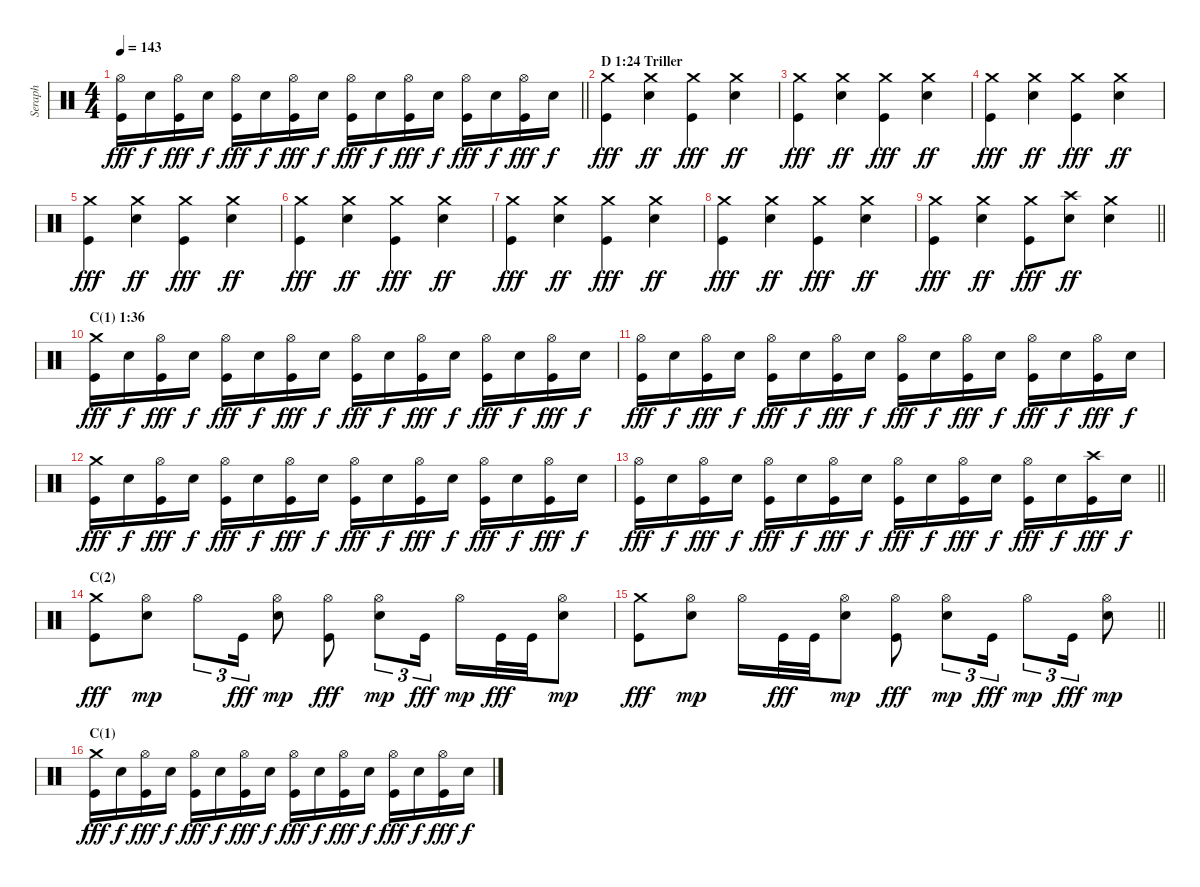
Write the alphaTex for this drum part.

\track ("Seraph" "Seraph") {instrument percussion}
\staff {score}
\articulation defaults
\ts (4 4)
\tempo 143
\clef neutral
\barLineRight lightlight
\ks c
("Hi-Hat (open)" "Kick (hit)").16{dy fff} "Electric Snare (hit)".16{dy f} ("Hi-Hat (open)" "Kick (hit)").16{dy fff} "Electric Snare (hit)".16{dy f} ("Hi-Hat (open)" "Kick (hit)").16{dy fff} "Electric Snare (hit)".16{dy f} ("Hi-Hat (open)" "Kick (hit)").16{dy fff} "Electric Snare (hit)".16{dy f} ("Hi-Hat (open)" "Kick (hit)").16{dy fff} "Electric Snare (hit)".16{dy f} ("Hi-Hat (open)" "Kick (hit)").16{dy fff} "Electric Snare (hit)".16{dy f} ("Hi-Hat (open)" "Kick (hit)").16{dy fff} "Electric Snare (hit)".16{dy f} ("Hi-Hat (open)" "Kick (hit)").16{dy fff} "Electric Snare (hit)".16{dy f} |
\section ("" "D 1:24 Triller")
("Crash medium (hit)" "Kick (hit)").4{dy fff} ("Crash medium (hit)" "Electric Snare (hit)").4{dy ff} ("Crash medium (hit)" "Kick (hit)").4{dy fff} ("Crash medium (hit)" "Electric Snare (hit)").4{dy ff} |
("Crash medium (hit)" "Kick (hit)").4{dy fff} ("Crash medium (hit)" "Electric Snare (hit)").4{dy ff} ("Crash medium (hit)" "Kick (hit)").4{dy fff} ("Crash medium (hit)" "Electric Snare (hit)").4{dy ff} |
("Crash medium (hit)" "Kick (hit)").4{dy fff} ("Crash medium (hit)" "Electric Snare (hit)").4{dy ff} ("Crash medium (hit)" "Kick (hit)").4{dy fff} ("Crash medium (hit)" "Electric Snare (hit)").4{dy ff} |
("Crash medium (hit)" "Kick (hit)").4{dy fff} ("Crash medium (hit)" "Electric Snare (hit)").4{dy ff} ("Crash medium (hit)" "Kick (hit)").4{dy fff} ("Crash medium (hit)" "Electric Snare (hit)").4{dy ff} |
("Crash medium (hit)" "Kick (hit)").4{dy fff} ("Crash medium (hit)" "Electric Snare (hit)").4{dy ff} ("Crash medium (hit)" "Kick (hit)").4{dy fff} ("Crash medium (hit)" "Electric Snare (hit)").4{dy ff} |
("Crash medium (hit)" "Kick (hit)").4{dy fff} ("Crash medium (hit)" "Electric Snare (hit)").4{dy ff} ("Crash medium (hit)" "Kick (hit)").4{dy fff} ("Crash medium (hit)" "Electric Snare (hit)").4{dy ff} |
("Crash medium (hit)" "Kick (hit)").4{dy fff} ("Crash medium (hit)" "Electric Snare (hit)").4{dy ff} ("Crash medium (hit)" "Kick (hit)").4{dy fff} ("Crash medium (hit)" "Electric Snare (hit)").4{dy ff} |
\barLineRight lightlight
("Crash medium (hit)" "Kick (hit)").4{dy fff} ("Crash medium (hit)" "Electric Snare (hit)").4{dy ff} ("Crash medium (hit)" "Kick (hit)").8{dy fff} ("Crash high (hit)" "Electric Snare (hit)").8{dy ff} ("Crash medium (hit)" "Electric Snare (hit)").4 |
\section ("" "C(1) 1:36")
("Crash medium (hit)" "Kick (hit)").16{dy fff} "Electric Snare (hit)".16{dy f} ("Hi-Hat (open)" "Kick (hit)").16{dy fff} "Electric Snare (hit)".16{dy f} ("Hi-Hat (open)" "Kick (hit)").16{dy fff} "Electric Snare (hit)".16{dy f} ("Hi-Hat (open)" "Kick (hit)").16{dy fff} "Electric Snare (hit)".16{dy f} ("Hi-Hat (open)" "Kick (hit)").16{dy fff} "Electric Snare (hit)".16{dy f} ("Hi-Hat (open)" "Kick (hit)").16{dy fff} "Electric Snare (hit)".16{dy f} ("Hi-Hat (open)" "Kick (hit)").16{dy fff} "Electric Snare (hit)".16{dy f} ("Hi-Hat (open)" "Kick (hit)").16{dy fff} "Electric Snare (hit)".16{dy f} |
("Hi-Hat (open)" "Kick (hit)").16{dy fff} "Electric Snare (hit)".16{dy f} ("Hi-Hat (open)" "Kick (hit)").16{dy fff} "Electric Snare (hit)".16{dy f} ("Hi-Hat (open)" "Kick (hit)").16{dy fff} "Electric Snare (hit)".16{dy f} ("Hi-Hat (open)" "Kick (hit)").16{dy fff} "Electric Snare (hit)".16{dy f} ("Hi-Hat (open)" "Kick (hit)").16{dy fff} "Electric Snare (hit)".16{dy f} ("Hi-Hat (open)" "Kick (hit)").16{dy fff} "Electric Snare (hit)".16{dy f} ("Hi-Hat (open)" "Kick (hit)").16{dy fff} "Electric Snare (hit)".16{dy f} ("Hi-Hat (open)" "Kick (hit)").16{dy fff} "Electric Snare (hit)".16{dy f} |
("Crash medium (hit)" "Kick (hit)").16{dy fff} "Electric Snare (hit)".16{dy f} ("Hi-Hat (open)" "Kick (hit)").16{dy fff} "Electric Snare (hit)".16{dy f} ("Hi-Hat (open)" "Kick (hit)").16{dy fff} "Electric Snare (hit)".16{dy f} ("Hi-Hat (open)" "Kick (hit)").16{dy fff} "Electric Snare (hit)".16{dy f} ("Hi-Hat (open)" "Kick (hit)").16{dy fff} "Electric Snare (hit)".16{dy f} ("Hi-Hat (open)" "Kick (hit)").16{dy fff} "Electric Snare (hit)".16{dy f} ("Hi-Hat (open)" "Kick (hit)").16{dy fff} "Electric Snare (hit)".16{dy f} ("Hi-Hat (open)" "Kick (hit)").16{dy fff} "Electric Snare (hit)".16{dy f} |
\barLineRight lightlight
("Hi-Hat (open)" "Kick (hit)").16{dy fff} "Electric Snare (hit)".16{dy f} ("Hi-Hat (open)" "Kick (hit)").16{dy fff} "Electric Snare (hit)".16{dy f} ("Hi-Hat (open)" "Kick (hit)").16{dy fff} "Electric Snare (hit)".16{dy f} ("Hi-Hat (open)" "Kick (hit)").16{dy fff} "Electric Snare (hit)".16{dy f} ("Hi-Hat (open)" "Kick (hit)").16{dy fff} "Electric Snare (hit)".16{dy f} ("Hi-Hat (open)" "Kick (hit)").16{dy fff} "Electric Snare (hit)".16{dy f} ("Hi-Hat (open)" "Kick (hit)").16{dy fff} "Electric Snare (hit)".16{dy f} ("Crash high (hit)" "Kick (hit)").16{dy fff} "Electric Snare (hit)".16{dy f} |
\section ("" "C(2)")
("Crash medium (hit)" "Kick (hit)").8{dy fff} ("Hi-Hat (open)" "Electric Snare (hit)").8{dy mp} "Hi-Hat (open)".8{tu (3 2)} "Kick (hit)".16{tu (3 2) dy fff} ("Hi-Hat (open)" "Electric Snare (hit)").8{dy mp} ("Hi-Hat (open)" "Kick (hit)").8{dy fff} ("Hi-Hat (open)" "Electric Snare (hit)").8{tu (3 2) dy mp} "Kick (hit)".16{tu (3 2) dy fff} "Hi-Hat (open)".16{dy mp} "Kick (hit)".32{dy fff} "Kick (hit)".32 ("Hi-Hat (open)" "Electric Snare (hit)").8{dy mp} |
\barLineRight lightlight
("Crash medium (hit)" "Kick (hit)").8{dy fff} ("Hi-Hat (open)" "Electric Snare (hit)").8{dy mp} "Hi-Hat (open)".16 "Kick (hit)".32{dy fff} "Kick (hit)".32 ("Hi-Hat (open)" "Electric Snare (hit)").8{dy mp} ("Hi-Hat (open)" "Kick (hit)").8{dy fff} ("Hi-Hat (open)" "Electric Snare (hit)").8{tu (3 2) dy mp} "Kick (hit)".16{tu (3 2) dy fff} "Hi-Hat (open)".8{tu (3 2) dy mp} "Kick (hit)".16{tu (3 2) dy fff} ("Hi-Hat (open)" "Electric Snare (hit)").8{dy mp} |
\section ("" "C(1)")
("Crash medium (hit)" "Kick (hit)").16{dy fff} "Electric Snare (hit)".16{dy f} ("Hi-Hat (open)" "Kick (hit)").16{dy fff} "Electric Snare (hit)".16{dy f} ("Hi-Hat (open)" "Kick (hit)").16{dy fff} "Electric Snare (hit)".16{dy f} ("Hi-Hat (open)" "Kick (hit)").16{dy fff} "Electric Snare (hit)".16{dy f} ("Hi-Hat (open)" "Kick (hit)").16{dy fff} "Electric Snare (hit)".16{dy f} ("Hi-Hat (open)" "Kick (hit)").16{dy fff} "Electric Snare (hit)".16{dy f} ("Hi-Hat (open)" "Kick (hit)").16{dy fff} "Electric Snare (hit)".16{dy f} ("Hi-Hat (open)" "Kick (hit)").16{dy fff} "Electric Snare (hit)".16{dy f}
